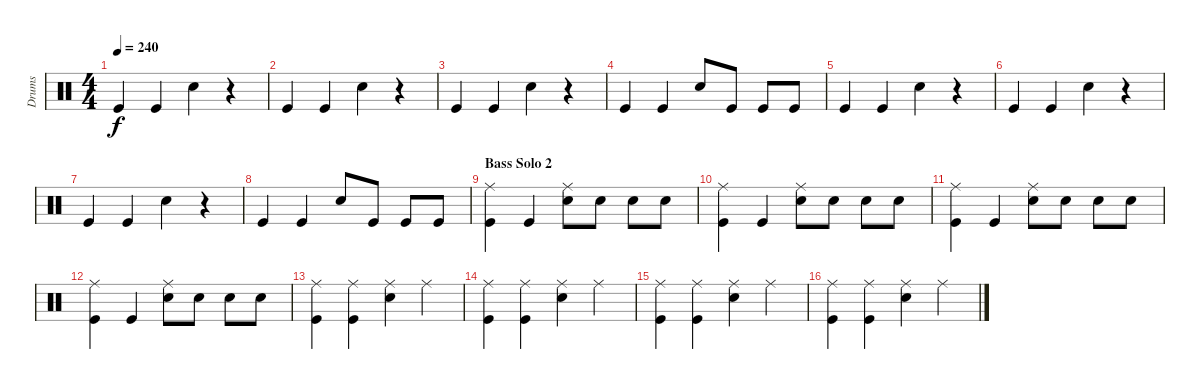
\track ("Drums" "Drums") {instrument percussion}
\staff {score}
\articulation defaults
\ts (4 4)
\tempo 240
\clef neutral
\ks c "Kick (hit)".4{dy f} "Kick (hit)".4 "Snare (hit) 2".4
r.4 |
"Kick (hit)".4 "Kick (hit)".4 "Snare (hit) 2".4 r.4 |
"Kick (hit)".4 "Kick (hit)".4 "Snare (hit) 2".4 r.4 |
"Kick (hit)".4 "Kick (hit)".4 "Snare (hit) 2".8 "Kick (hit)".8 "Kick (hit)".8 "Kick (hit)".8 |
"Kick (hit)".4 "Kick (hit)".4 "Snare (hit) 2".4 r.4 |
"Kick (hit)".4 "Kick (hit)".4 "Snare (hit) 2".4 r.4 |
"Kick (hit)".4 "Kick (hit)".4 "Snare (hit) 2".4 r.4 |
"Kick (hit)".4 "Kick (hit)".4 "Snare (hit) 2".8 "Kick (hit)".8 "Kick (hit)".8 "Kick (hit)".8 |
\section ("" "Bass Solo 2")
("Kick (hit)" "Ride (middle)").4 "Kick (hit)".4 ("Snare (hit) 2" "Ride (middle)").8 "Snare (hit) 2".8 "Snare (hit) 2".8 "Snare (hit) 2".8 |
("Kick (hit)" "Ride (middle)").4 "Kick (hit)".4 ("Snare (hit) 2" "Ride (middle)").8 "Snare (hit) 2".8 "Snare (hit) 2".8 "Snare (hit) 2".8 |
("Kick (hit)" "Ride (middle)").4 "Kick (hit)".4 ("Snare (hit) 2" "Ride (middle)").8 "Snare (hit) 2".8 "Snare (hit) 2".8 "Snare (hit) 2".8 |
("Kick (hit)" "Ride (middle)").4 "Kick (hit)".4 ("Snare (hit) 2" "Ride (middle)").8 "Snare (hit) 2".8 "Snare (hit) 2".8 "Snare (hit) 2".8 |
("Kick (hit)" "Ride (middle)").4 ("Kick (hit)" "Ride (middle)").4 ("Snare (hit) 2" "Ride (middle)").4 "Ride (middle)".4 |
("Kick (hit)" "Ride (middle)").4 ("Kick (hit)" "Ride (middle)").4 ("Snare (hit) 2" "Ride (middle)").4 "Ride (middle)".4 |
("Kick (hit)" "Ride (middle)").4 ("Kick (hit)" "Ride (middle)").4 ("Snare (hit) 2" "Ride (middle)").4 "Ride (middle)".4 |
("Kick (hit)" "Ride (middle)").4 ("Kick (hit)" "Ride (middle)").4 ("Snare (hit) 2" "Ride (middle)").4 "Ride (middle)".4
